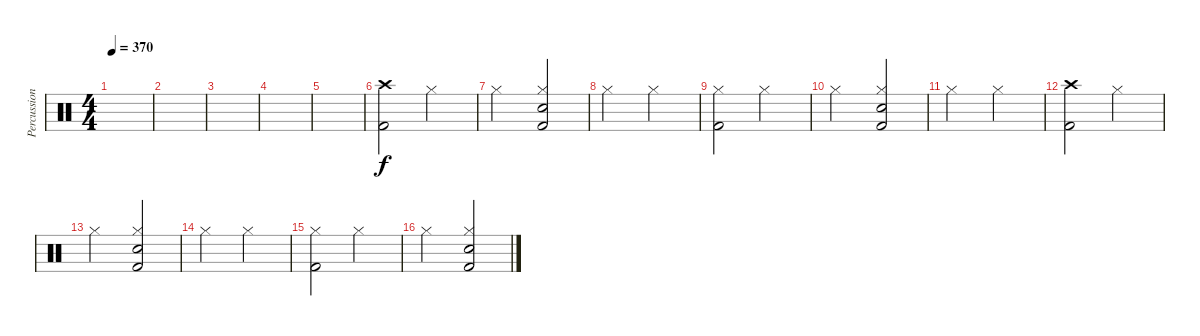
\track ("Percussions" "Percussion") {instrument percussion}
\staff {score}
\articulation defaults
\ts (4 4)
\tempo 370
\clef neutral
\ks c
|
|
|
|
|
("Crash high (hit)" "Kick (hit) 2").2 "Hi-Hat (closed)".2 |
"Hi-Hat (closed)".2 ("Hi-Hat (closed)" "Kick (hit) 2" "Snare (hit) 2").2 |
"Hi-Hat (closed)".2 "Hi-Hat (closed)".2 |
("Hi-Hat (closed)" "Kick (hit) 2").2 "Hi-Hat (closed)".2 |
"Hi-Hat (closed)".2 ("Hi-Hat (closed)" "Kick (hit) 2" "Snare (hit) 2").2 |
"Hi-Hat (closed)".2 "Hi-Hat (closed)".2 |
("Crash high (hit)" "Kick (hit) 2").2 "Hi-Hat (closed)".2 |
"Hi-Hat (closed)".2 ("Hi-Hat (closed)" "Kick (hit) 2" "Snare (hit) 2").2 |
"Hi-Hat (closed)".2 "Hi-Hat (closed)".2 |
("Hi-Hat (closed)" "Kick (hit) 2").2 "Hi-Hat (closed)".2 |
"Hi-Hat (closed)".2 ("Hi-Hat (closed)" "Kick (hit) 2" "Snare (hit) 2").2
